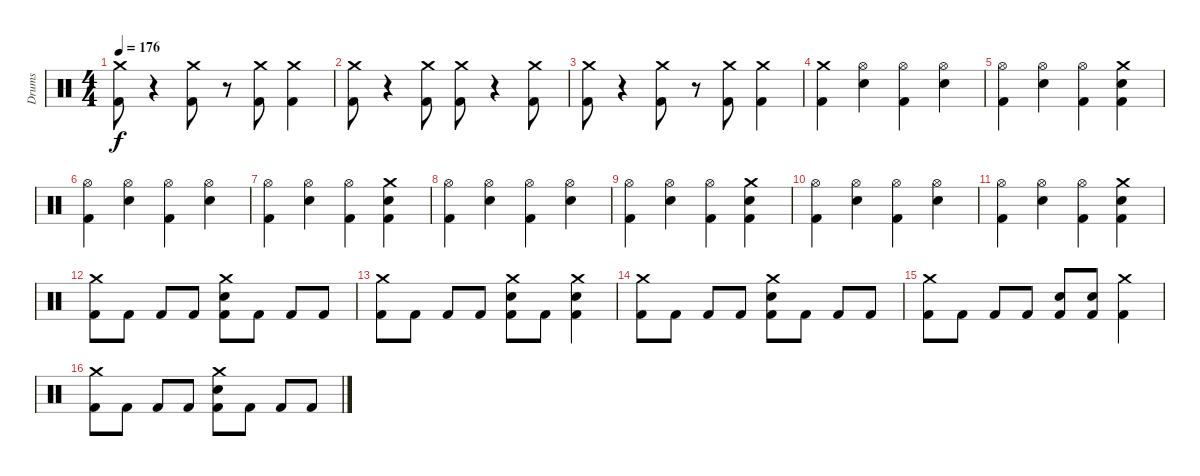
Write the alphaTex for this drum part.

\track ("Drums" "Drums") {instrument percussion}
\staff {score}
\articulation defaults
\ts (4 4)
\tempo 176
\clef neutral
\ks c
("Crash medium (hit)" "Kick (hit) 2").8{dy f} r.4 ("Crash medium (hit)" "Kick (hit) 2").8 r.8 ("Crash medium (hit)" "Kick (hit) 2").8 ("Crash medium (hit)" "Kick (hit) 2").4 |
("Crash medium (hit)" "Kick (hit) 2").8 r.4 ("Crash medium (hit)" "Kick (hit) 2").8 ("Crash medium (hit)" "Kick (hit) 2").8 r.4 ("Crash medium (hit)" "Kick (hit) 2").8 |
("Crash medium (hit)" "Kick (hit) 2").8 r.4 ("Crash medium (hit)" "Kick (hit) 2").8 r.8 ("Crash medium (hit)" "Kick (hit) 2").8 ("Crash medium (hit)" "Kick (hit) 2").4 |
("Crash medium (hit)" "Kick (hit) 2").4 ("Hi-Hat (open)" "Snare (hit) 2").4 ("Hi-Hat (open)" "Kick (hit) 2").4 ("Hi-Hat (open)" "Snare (hit) 2").4 |
("Hi-Hat (open)" "Kick (hit) 2").4 ("Hi-Hat (open)" "Snare (hit) 2").4 ("Hi-Hat (open)" "Kick (hit) 2").4 ("Crash medium (hit)" "Snare (hit) 2" "Kick (hit) 2").4 |
("Hi-Hat (open)" "Kick (hit) 2").4 ("Hi-Hat (open)" "Snare (hit) 2").4 ("Hi-Hat (open)" "Kick (hit) 2").4 ("Hi-Hat (open)" "Snare (hit) 2").4 |
("Hi-Hat (open)" "Kick (hit) 2").4 ("Hi-Hat (open)" "Snare (hit) 2").4 ("Hi-Hat (open)" "Kick (hit) 2").4 ("Crash medium (hit)" "Snare (hit) 2" "Kick (hit) 2").4 |
("Hi-Hat (open)" "Kick (hit) 2").4 ("Hi-Hat (open)" "Snare (hit) 2").4 ("Hi-Hat (open)" "Kick (hit) 2").4 ("Hi-Hat (open)" "Snare (hit) 2").4 |
("Hi-Hat (open)" "Kick (hit) 2").4 ("Hi-Hat (open)" "Snare (hit) 2").4 ("Hi-Hat (open)" "Kick (hit) 2").4 ("Crash medium (hit)" "Snare (hit) 2" "Kick (hit) 2").4 |
("Hi-Hat (open)" "Kick (hit) 2").4 ("Hi-Hat (open)" "Snare (hit) 2").4 ("Hi-Hat (open)" "Kick (hit) 2").4 ("Hi-Hat (open)" "Snare (hit) 2").4 |
("Hi-Hat (open)" "Kick (hit) 2").4 ("Hi-Hat (open)" "Snare (hit) 2").4 ("Hi-Hat (open)" "Kick (hit) 2").4 ("Crash medium (hit)" "Snare (hit) 2" "Kick (hit) 2").4 |
("Crash medium (hit)" "Kick (hit) 2").8 "Kick (hit) 2".8 "Kick (hit) 2".8 "Kick (hit) 2".8 ("Crash medium (hit)" "Snare (hit) 2" "Kick (hit) 2").8 "Kick (hit) 2".8 "Kick (hit) 2".8 "Kick (hit) 2".8 |
("Crash medium (hit)" "Kick (hit) 2").8 "Kick (hit) 2".8 "Kick (hit) 2".8 "Kick (hit) 2".8 ("Crash medium (hit)" "Snare (hit) 2" "Kick (hit) 2").8 "Kick (hit) 2".8 ("Crash medium (hit)" "Snare (hit) 2" "Kick (hit) 2").4 |
("Crash medium (hit)" "Kick (hit) 2").8 "Kick (hit) 2".8 "Kick (hit) 2".8 "Kick (hit) 2".8 ("Crash medium (hit)" "Snare (hit) 2" "Kick (hit) 2").8 "Kick (hit) 2".8 "Kick (hit) 2".8 "Kick (hit) 2".8 |
("Crash medium (hit)" "Kick (hit) 2").8 "Kick (hit) 2".8 "Kick (hit) 2".8 "Kick (hit) 2".8 ("Snare (hit) 2" "Kick (hit) 2").8 ("Snare (hit) 2" "Kick (hit) 2").8 ("Crash medium (hit)" "Kick (hit) 2").4 |
("Crash medium (hit)" "Kick (hit) 2").8 "Kick (hit) 2".8 "Kick (hit) 2".8 "Kick (hit) 2".8 ("Crash medium (hit)" "Snare (hit) 2" "Kick (hit) 2").8 "Kick (hit) 2".8 "Kick (hit) 2".8 "Kick (hit) 2".8
